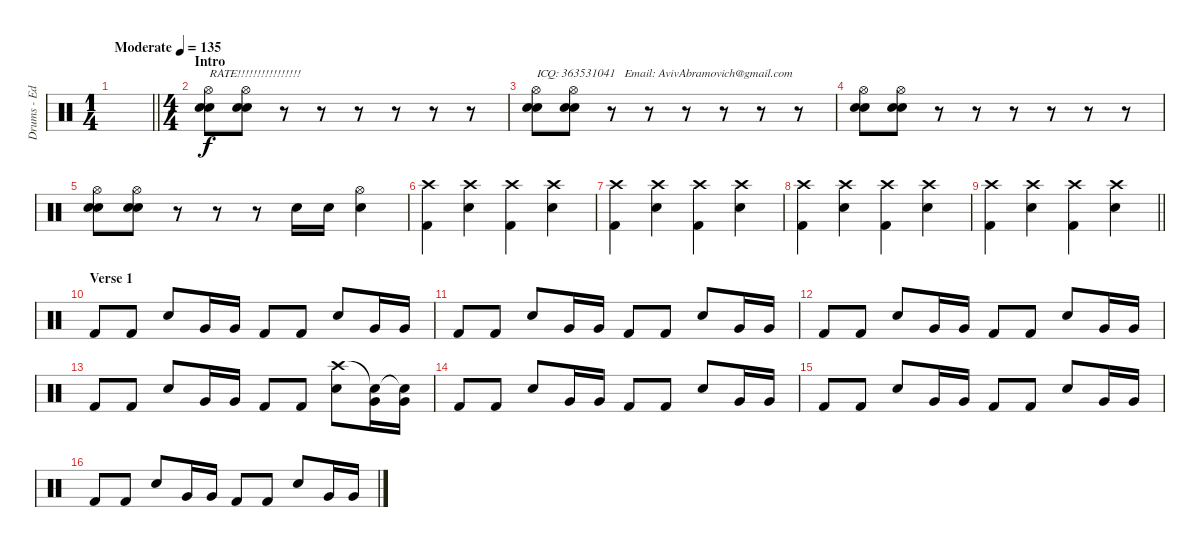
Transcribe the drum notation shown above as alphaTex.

\track ("Drums - Ed Edhus" "Drums - Ed") {instrument percussion bank 127}
\staff {score}
\articulation defaults
\ts (1 4)
\tempo (135 "Moderate")
\clef neutral
\barLineRight lightlight
\ks c
|
\ts (4 4)
\section ("" "Intro")
("Hi-Hat (open)" "Snare (hit) 2" "Snare (hit) 2").8{txt "RATE!!!!!!!!!!!!!!!!"} ("Hi-Hat (open)" "Snare (hit) 2" "Snare (hit) 2").8 r.8 r.8 r.8 r.8 r.8 r.8 |
("Hi-Hat (open)" "Snare (hit) 2" "Snare (hit) 2").8{txt "ICQ: 363531041   Email: AvivAbramovich@gmail.com"} ("Hi-Hat (open)" "Snare (hit) 2" "Snare (hit) 2").8 r.8 r.8 r.8 r.8 r.8 r.8 |
("Hi-Hat (open)" "Snare (hit) 2" "Snare (hit) 2").8 ("Hi-Hat (open)" "Snare (hit) 2" "Snare (hit) 2").8 r.8 r.8 r.8 r.8 r.8 r.8 |
("Hi-Hat (open)" "Snare (hit) 2" "Snare (hit) 2").8 ("Hi-Hat (open)" "Snare (hit) 2" "Snare (hit) 2").8 r.8 r.8 r.8 "Snare (hit) 2".16 "Snare (hit) 2".16 ("Hi-Hat (open)" "Snare (hit) 2").4 |
("Crash high (hit)" "Kick (hit) 2").4 ("Crash high (hit)" "Snare (hit) 2").4 ("Crash high (hit)" "Kick (hit) 2").4 ("Crash high (hit)" "Snare (hit) 2").4 |
("Crash high (hit)" "Kick (hit) 2").4 ("Crash high (hit)" "Snare (hit) 2").4 ("Crash high (hit)" "Kick (hit) 2").4 ("Crash high (hit)" "Snare (hit) 2").4 |
("Crash high (hit)" "Kick (hit) 2").4 ("Crash high (hit)" "Snare (hit) 2").4 ("Crash high (hit)" "Kick (hit) 2").4 ("Crash high (hit)" "Snare (hit) 2").4 |
\barLineRight lightlight
("Crash high (hit)" "Kick (hit) 2").4 ("Crash high (hit)" "Snare (hit) 2").4 ("Crash high (hit)" "Kick (hit) 2").4 ("Crash high (hit)" "Snare (hit) 2").4 |
\section ("" "Verse 1")
"Kick (hit) 2".8 "Kick (hit) 2".8 "Snare (hit) 2".8 "Very Low Tom (hit)".16 "Very Low Tom (hit)".16 "Kick (hit) 2".8 "Kick (hit) 2".8 "Snare (hit) 2".8 "Very Low Tom (hit)".16 "Very Low Tom (hit)".16 |
"Kick (hit) 2".8 "Kick (hit) 2".8 "Snare (hit) 2".8 "Very Low Tom (hit)".16 "Very Low Tom (hit)".16 "Kick (hit) 2".8 "Kick (hit) 2".8 "Snare (hit) 2".8 "Very Low Tom (hit)".16 "Very Low Tom (hit)".16 |
"Kick (hit) 2".8 "Kick (hit) 2".8 "Snare (hit) 2".8 "Very Low Tom (hit)".16 "Very Low Tom (hit)".16 "Kick (hit) 2".8 "Kick (hit) 2".8 "Snare (hit) 2".8 "Very Low Tom (hit)".16 "Very Low Tom (hit)".16 |
"Kick (hit) 2".8 "Kick (hit) 2".8 "Snare (hit) 2".8 "Very Low Tom (hit)".16 "Very Low Tom (hit)".16 "Kick (hit) 2".8 "Kick (hit) 2".8 ("Crash high (hit)" "Snare (hit) 2").8 ("Snare (hit)"{t} "Very Low Tom (hit)").16 ("Snare (hit)"{t} "Very Low Tom (hit)").16 |
"Kick (hit) 2".8 "Kick (hit) 2".8 "Snare (hit) 2".8 "Very Low Tom (hit)".16 "Very Low Tom (hit)".16 "Kick (hit) 2".8 "Kick (hit) 2".8 "Snare (hit) 2".8 "Very Low Tom (hit)".16 "Very Low Tom (hit)".16 |
"Kick (hit) 2".8 "Kick (hit) 2".8 "Snare (hit) 2".8 "Very Low Tom (hit)".16 "Very Low Tom (hit)".16 "Kick (hit) 2".8 "Kick (hit) 2".8 "Snare (hit) 2".8 "Very Low Tom (hit)".16 "Very Low Tom (hit)".16 |
"Kick (hit) 2".8 "Kick (hit) 2".8 "Snare (hit) 2".8 "Very Low Tom (hit)".16 "Very Low Tom (hit)".16 "Kick (hit) 2".8 "Kick (hit) 2".8 "Snare (hit) 2".8 "Very Low Tom (hit)".16 "Very Low Tom (hit)".16
